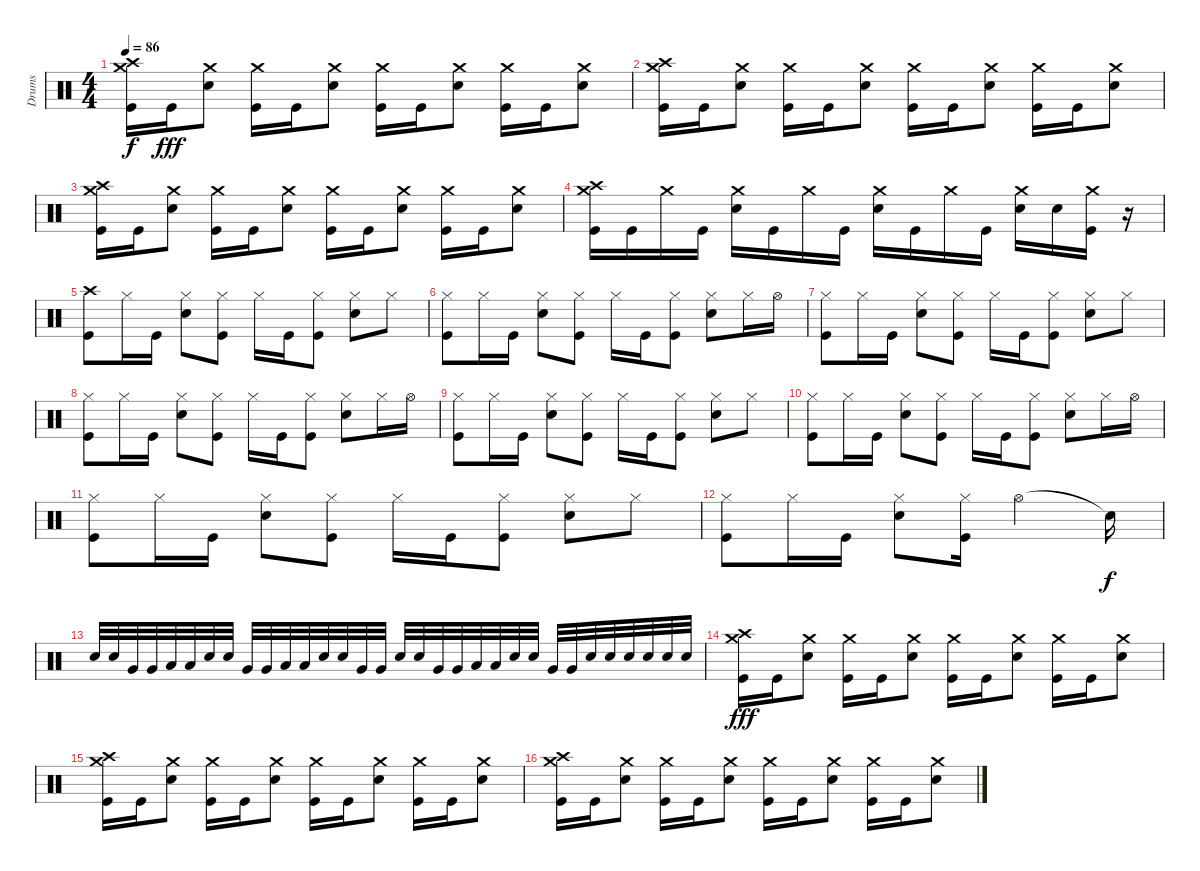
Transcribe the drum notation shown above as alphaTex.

\track ("Drums" "Drums") {instrument percussion}
\staff {score}
\articulation defaults
\ts (4 4)
\tempo 86
\clef neutral
\ks c
("Crash high (hit)"{t} "Crash medium (hit)"{t} "Kick (hit)"{t}).16{dy f} "Kick (hit)".16{dy fff} ("Crash medium (hit)" "Electric Snare (hit)").8 ("Crash medium (hit)" "Kick (hit)").16 "Kick (hit)".16 ("Crash medium (hit)" "Electric Snare (hit)").8 ("Crash medium (hit)" "Kick (hit)").16 "Kick (hit)".16 ("Crash medium (hit)" "Electric Snare (hit)").8 ("Crash medium (hit)" "Kick (hit)").16 "Kick (hit)".16 ("Crash medium (hit)" "Electric Snare (hit)").8 |
("Crash high (hit)" "Crash medium (hit)" "Kick (hit)").16 "Kick (hit)".16 ("Crash medium (hit)" "Electric Snare (hit)").8 ("Crash medium (hit)" "Kick (hit)").16 "Kick (hit)".16 ("Crash medium (hit)" "Electric Snare (hit)").8 ("Crash medium (hit)" "Kick (hit)").16 "Kick (hit)".16 ("Crash medium (hit)" "Electric Snare (hit)").8 ("Crash medium (hit)" "Kick (hit)").16 "Kick (hit)".16 ("Crash medium (hit)" "Electric Snare (hit)").8 |
("Crash high (hit)" "Crash medium (hit)" "Kick (hit)").16 "Kick (hit)".16 ("Crash medium (hit)" "Electric Snare (hit)").8 ("Crash medium (hit)" "Kick (hit)").16 "Kick (hit)".16 ("Crash medium (hit)" "Electric Snare (hit)").8 ("Crash medium (hit)" "Kick (hit)").16 "Kick (hit)".16 ("Crash medium (hit)" "Electric Snare (hit)").8 ("Crash medium (hit)" "Kick (hit)").16 "Kick (hit)".16 ("Crash medium (hit)" "Electric Snare (hit)").8 |
("Crash high (hit)" "Crash medium (hit)" "Kick (hit)").16 "Kick (hit)".16 "Crash medium (hit)".16 "Kick (hit)".16 ("Crash medium (hit)" "Electric Snare (hit)").16 "Kick (hit)".16 "Crash medium (hit)".16 "Kick (hit)".16 ("Crash medium (hit)" "Electric Snare (hit)").16 "Kick (hit)".16 "Crash medium (hit)".16 "Kick (hit)".16 ("Crash medium (hit)" "Electric Snare (hit)").16 "Electric Snare (hit)".16 ("Crash medium (hit)" "Kick (hit)").16 r.16 |
("Crash high (hit)" "Kick (hit)").8 "Hi-Hat (closed)".16 "Kick (hit)".16 ("Hi-Hat (closed)" "Electric Snare (hit)").8 ("Hi-Hat (closed)" "Kick (hit)").8 "Hi-Hat (closed)".16 "Kick (hit)".16 ("Hi-Hat (closed)" "Kick (hit)").8 ("Hi-Hat (closed)" "Electric Snare (hit)").8 "Hi-Hat (closed)".8 |
("Hi-Hat (closed)" "Kick (hit)").8 "Hi-Hat (closed)".16 "Kick (hit)".16 ("Hi-Hat (closed)" "Electric Snare (hit)").8 ("Hi-Hat (closed)" "Kick (hit)").8 "Hi-Hat (closed)".16 "Kick (hit)".16 ("Hi-Hat (closed)" "Kick (hit)").8 ("Hi-Hat (closed)" "Electric Snare (hit)").8 "Hi-Hat (closed)".16 "Hi-Hat (open)".16 |
("Hi-Hat (closed)" "Kick (hit)").8 "Hi-Hat (closed)".16 "Kick (hit)".16 ("Hi-Hat (closed)" "Electric Snare (hit)").8 ("Hi-Hat (closed)" "Kick (hit)").8 "Hi-Hat (closed)".16 "Kick (hit)".16 ("Hi-Hat (closed)" "Kick (hit)").8 ("Hi-Hat (closed)" "Electric Snare (hit)").8 "Hi-Hat (closed)".8 |
("Hi-Hat (closed)" "Kick (hit)").8 "Hi-Hat (closed)".16 "Kick (hit)".16 ("Hi-Hat (closed)" "Electric Snare (hit)").8 ("Hi-Hat (closed)" "Kick (hit)").8 "Hi-Hat (closed)".16 "Kick (hit)".16 ("Hi-Hat (closed)" "Kick (hit)").8 ("Hi-Hat (closed)" "Electric Snare (hit)").8 "Hi-Hat (closed)".16 "Hi-Hat (open)".16 |
("Hi-Hat (closed)" "Kick (hit)").8 "Hi-Hat (closed)".16 "Kick (hit)".16 ("Hi-Hat (closed)" "Electric Snare (hit)").8 ("Hi-Hat (closed)" "Kick (hit)").8 "Hi-Hat (closed)".16 "Kick (hit)".16 ("Hi-Hat (closed)" "Kick (hit)").8 ("Hi-Hat (closed)" "Electric Snare (hit)").8 "Hi-Hat (closed)".8 |
("Hi-Hat (closed)" "Kick (hit)").8 "Hi-Hat (closed)".16 "Kick (hit)".16 ("Hi-Hat (closed)" "Electric Snare (hit)").8 ("Hi-Hat (closed)" "Kick (hit)").8 "Hi-Hat (closed)".16 "Kick (hit)".16 ("Hi-Hat (closed)" "Kick (hit)").8 ("Hi-Hat (closed)" "Electric Snare (hit)").8 "Hi-Hat (closed)".16 "Hi-Hat (open)".16 |
("Hi-Hat (closed)" "Kick (hit)").8 "Hi-Hat (closed)".16 "Kick (hit)".16 ("Hi-Hat (closed)" "Electric Snare (hit)").8 ("Hi-Hat (closed)" "Kick (hit)").8 "Hi-Hat (closed)".16 "Kick (hit)".16 ("Hi-Hat (closed)" "Kick (hit)").8 ("Hi-Hat (closed)" "Electric Snare (hit)").8 "Hi-Hat (closed)".8 |
("Hi-Hat (closed)" "Kick (hit)").8 "Hi-Hat (closed)".16 "Kick (hit)".16 ("Hi-Hat (closed)" "Electric Snare (hit)").8 ("Hi-Hat (closed)" "Kick (hit)").16 "Hi-Hat (open)".2 "Snare (hit)"{t}.16{dy f} |
"Electric Snare (hit)".32 "Electric Snare (hit)".32 "Very Low Tom (hit)".32 "Very Low Tom (hit)".32 "Low Floor Tom (hit)".32 "Low Floor Tom (hit)".32 "Electric Snare (hit)".32 "Electric Snare (hit)".32 "Very Low Tom (hit)".32 "Very Low Tom (hit)".32 "Low Floor Tom (hit)".32 "Low Floor Tom (hit)".32 "Electric Snare (hit)".32 "Electric Snare (hit)".32 "Very Low Tom (hit)".32 "Very Low Tom (hit)".32 "Electric Snare (hit)".32 "Electric Snare (hit)".32 "Very Low Tom (hit)".32 "Very Low Tom (hit)".32 "Low Floor Tom (hit)".32 "Low Floor Tom (hit)".32 "Electric Snare (hit)".32 "Electric Snare (hit)".32 "Very Low Tom (hit)".32 "Very Low Tom (hit)".32 "Electric Snare (hit)".32 "Electric Snare (hit)".32 "Electric Snare (hit)".32 "Electric Snare (hit)".32 "Electric Snare (hit)".32 "Electric Snare (hit)".32 |
("Crash high (hit)" "Crash medium (hit)" "Kick (hit)").16{dy fff} "Kick (hit)".16 ("Crash medium (hit)" "Electric Snare (hit)").8 ("Crash medium (hit)" "Kick (hit)").16 "Kick (hit)".16 ("Crash medium (hit)" "Electric Snare (hit)").8 ("Crash medium (hit)" "Kick (hit)").16 "Kick (hit)".16 ("Crash medium (hit)" "Electric Snare (hit)").8 ("Crash medium (hit)" "Kick (hit)").16 "Kick (hit)".16 ("Crash medium (hit)" "Electric Snare (hit)").8 |
("Crash high (hit)" "Crash medium (hit)" "Kick (hit)").16 "Kick (hit)".16 ("Crash medium (hit)" "Electric Snare (hit)").8 ("Crash medium (hit)" "Kick (hit)").16 "Kick (hit)".16 ("Crash medium (hit)" "Electric Snare (hit)").8 ("Crash medium (hit)" "Kick (hit)").16 "Kick (hit)".16 ("Crash medium (hit)" "Electric Snare (hit)").8 ("Crash medium (hit)" "Kick (hit)").16 "Kick (hit)".16 ("Crash medium (hit)" "Electric Snare (hit)").8 |
("Crash high (hit)" "Crash medium (hit)" "Kick (hit)").16 "Kick (hit)".16 ("Crash medium (hit)" "Electric Snare (hit)").8 ("Crash medium (hit)" "Kick (hit)").16 "Kick (hit)".16 ("Crash medium (hit)" "Electric Snare (hit)").8 ("Crash medium (hit)" "Kick (hit)").16 "Kick (hit)".16 ("Crash medium (hit)" "Electric Snare (hit)").8 ("Crash medium (hit)" "Kick (hit)").16 "Kick (hit)".16 ("Crash medium (hit)" "Electric Snare (hit)").8
